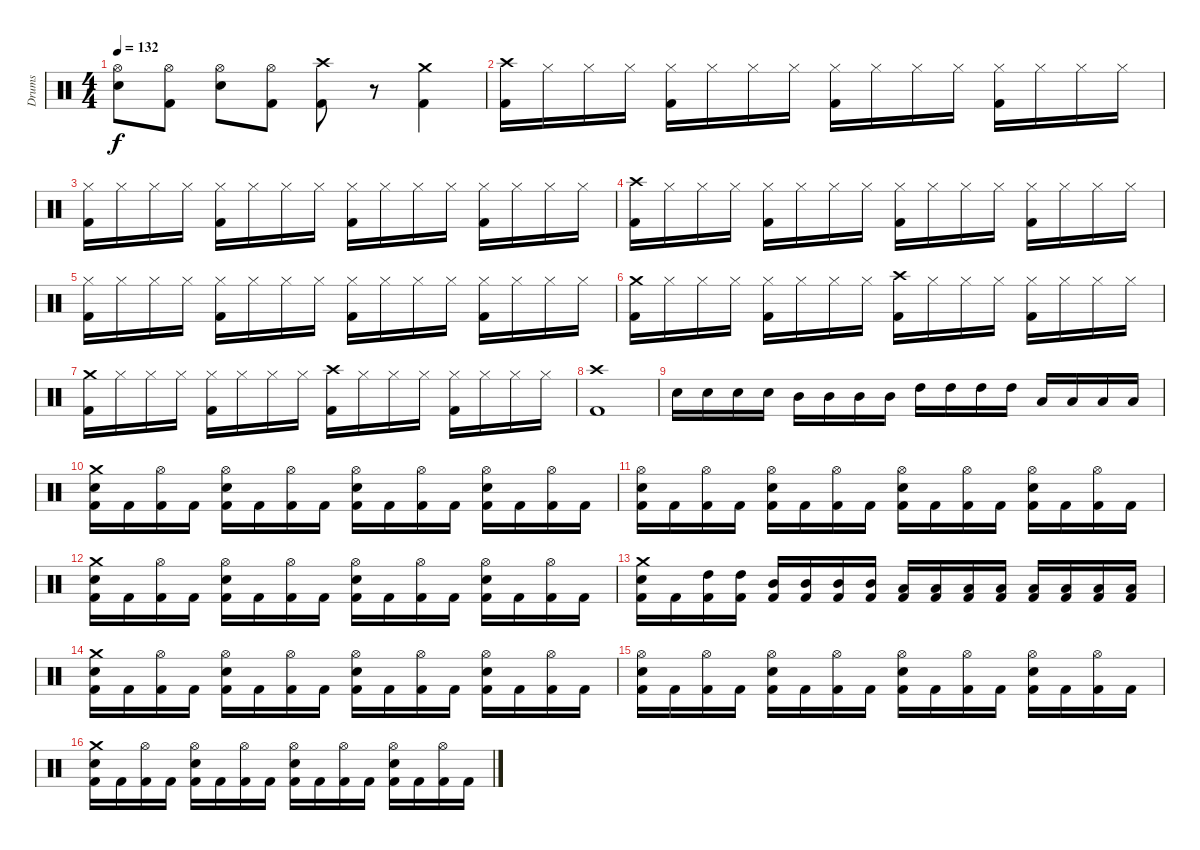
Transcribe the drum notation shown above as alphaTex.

\track ("Drums" "Drums") {instrument percussion}
\staff {score}
\articulation defaults
\ts (4 4)
\tempo 132
\clef neutral
\ks c
("Hi-Hat (open)" "Electric Snare (hit)").8{dy f} ("Hi-Hat (open)" "Kick (hit) 2").8 ("Hi-Hat (open)" "Electric Snare (hit)").8 ("Hi-Hat (open)" "Kick (hit) 2").8 ("Crash high (hit)" "Kick (hit) 2").8 r.8 ("Crash medium (hit)" "Kick (hit) 2").4 |
("Crash high (hit)" "Kick (hit) 2").16 "Hi-Hat (closed)".16 "Hi-Hat (closed)".16 "Hi-Hat (closed)".16 ("Hi-Hat (closed)" "Kick (hit) 2").16 "Hi-Hat (closed)".16 "Hi-Hat (closed)".16 "Hi-Hat (closed)".16 ("Hi-Hat (closed)" "Kick (hit) 2").16 "Hi-Hat (closed)".16 "Hi-Hat (closed)".16 "Hi-Hat (closed)".16 ("Hi-Hat (closed)" "Kick (hit) 2").16 "Hi-Hat (closed)".16 "Hi-Hat (closed)".16 "Hi-Hat (closed)".16 |
("Hi-Hat (closed)" "Kick (hit) 2").16 "Hi-Hat (closed)".16 "Hi-Hat (closed)".16 "Hi-Hat (closed)".16 ("Hi-Hat (closed)" "Kick (hit) 2").16 "Hi-Hat (closed)".16 "Hi-Hat (closed)".16 "Hi-Hat (closed)".16 ("Hi-Hat (closed)" "Kick (hit) 2").16 "Hi-Hat (closed)".16 "Hi-Hat (closed)".16 "Hi-Hat (closed)".16 ("Hi-Hat (closed)" "Kick (hit) 2").16 "Hi-Hat (closed)".16 "Hi-Hat (closed)".16 "Hi-Hat (closed)".16 |
("Crash high (hit)" "Kick (hit) 2").16 "Hi-Hat (closed)".16 "Hi-Hat (closed)".16 "Hi-Hat (closed)".16 ("Hi-Hat (closed)" "Kick (hit) 2").16 "Hi-Hat (closed)".16 "Hi-Hat (closed)".16 "Hi-Hat (closed)".16 ("Hi-Hat (closed)" "Kick (hit) 2").16 "Hi-Hat (closed)".16 "Hi-Hat (closed)".16 "Hi-Hat (closed)".16 ("Hi-Hat (closed)" "Kick (hit) 2").16 "Hi-Hat (closed)".16 "Hi-Hat (closed)".16 "Hi-Hat (closed)".16 |
("Hi-Hat (closed)" "Kick (hit) 2").16 "Hi-Hat (closed)".16 "Hi-Hat (closed)".16 "Hi-Hat (closed)".16 ("Hi-Hat (closed)" "Kick (hit) 2").16 "Hi-Hat (closed)".16 "Hi-Hat (closed)".16 "Hi-Hat (closed)".16 ("Hi-Hat (closed)" "Kick (hit) 2").16 "Hi-Hat (closed)".16 "Hi-Hat (closed)".16 "Hi-Hat (closed)".16 ("Hi-Hat (closed)" "Kick (hit) 2").16 "Hi-Hat (closed)".16 "Hi-Hat (closed)".16 "Hi-Hat (closed)".16 |
("Crash medium (hit)" "Kick (hit) 2").16 "Hi-Hat (closed)".16 "Hi-Hat (closed)".16 "Hi-Hat (closed)".16 ("Hi-Hat (closed)" "Kick (hit) 2").16 "Hi-Hat (closed)".16 "Hi-Hat (closed)".16 "Hi-Hat (closed)".16 ("Crash high (hit)" "Kick (hit) 2").16 "Hi-Hat (closed)".16 "Hi-Hat (closed)".16 "Hi-Hat (closed)".16 ("Hi-Hat (closed)" "Kick (hit) 2").16 "Hi-Hat (closed)".16 "Hi-Hat (closed)".16 "Hi-Hat (closed)".16 |
("Crash medium (hit)" "Kick (hit) 2").16 "Hi-Hat (closed)".16 "Hi-Hat (closed)".16 "Hi-Hat (closed)".16 ("Hi-Hat (closed)" "Kick (hit) 2").16 "Hi-Hat (closed)".16 "Hi-Hat (closed)".16 "Hi-Hat (closed)".16 ("Crash high (hit)" "Kick (hit) 2").16 "Hi-Hat (closed)".16 "Hi-Hat (closed)".16 "Hi-Hat (closed)".16 ("Hi-Hat (closed)" "Kick (hit) 2").16 "Hi-Hat (closed)".16 "Hi-Hat (closed)".16 "Hi-Hat (closed)".16 |
("Crash high (hit)" "Kick (hit) 2").1 |
"Electric Snare (hit)".16 "Electric Snare (hit)".16 "Electric Snare (hit)".16 "Electric Snare (hit)".16 "Mid Tom (hit)".16 "Mid Tom (hit)".16 "Mid Tom (hit)".16 "Mid Tom (hit)".16 "High Tom (hit)".16 "High Tom (hit)".16 "High Tom (hit)".16 "High Tom (hit)".16 "Low Tom (hit)".16 "Low Tom (hit)".16 "Low Tom (hit)".16 "Low Tom (hit)".16 |
("Crash medium (hit)" "Electric Snare (hit)" "Kick (hit) 2").16 "Kick (hit) 2".16 ("Hi-Hat (open)" "Kick (hit) 2").16 "Kick (hit) 2".16 ("Hi-Hat (open)" "Electric Snare (hit)" "Kick (hit) 2").16 "Kick (hit) 2".16 ("Hi-Hat (open)" "Kick (hit) 2").16 "Kick (hit) 2".16 ("Hi-Hat (open)" "Electric Snare (hit)" "Kick (hit) 2").16 "Kick (hit) 2".16 ("Hi-Hat (open)" "Kick (hit) 2").16 "Kick (hit) 2".16 ("Hi-Hat (open)" "Electric Snare (hit)" "Kick (hit) 2").16 "Kick (hit) 2".16 ("Hi-Hat (open)" "Kick (hit) 2").16 "Kick (hit) 2".16 |
("Hi-Hat (open)" "Electric Snare (hit)" "Kick (hit) 2").16 "Kick (hit) 2".16 ("Hi-Hat (open)" "Kick (hit) 2").16 "Kick (hit) 2".16 ("Hi-Hat (open)" "Electric Snare (hit)" "Kick (hit) 2").16 "Kick (hit) 2".16 ("Hi-Hat (open)" "Kick (hit) 2").16 "Kick (hit) 2".16 ("Hi-Hat (open)" "Electric Snare (hit)" "Kick (hit) 2").16 "Kick (hit) 2".16 ("Hi-Hat (open)" "Kick (hit) 2").16 "Kick (hit) 2".16 ("Hi-Hat (open)" "Electric Snare (hit)" "Kick (hit) 2").16 "Kick (hit) 2".16 ("Hi-Hat (open)" "Kick (hit) 2").16 "Kick (hit) 2".16 |
("Crash medium (hit)" "Electric Snare (hit)" "Kick (hit) 2").16 "Kick (hit) 2".16 ("Hi-Hat (open)" "Kick (hit) 2").16 "Kick (hit) 2".16 ("Hi-Hat (open)" "Electric Snare (hit)" "Kick (hit) 2").16 "Kick (hit) 2".16 ("Hi-Hat (open)" "Kick (hit) 2").16 "Kick (hit) 2".16 ("Hi-Hat (open)" "Electric Snare (hit)" "Kick (hit) 2").16 "Kick (hit) 2".16 ("Hi-Hat (open)" "Kick (hit) 2").16 "Kick (hit) 2".16 ("Hi-Hat (open)" "Electric Snare (hit)" "Kick (hit) 2").16 "Kick (hit) 2".16 ("Hi-Hat (open)" "Kick (hit) 2").16 "Kick (hit) 2".16 |
("Crash medium (hit)" "Electric Snare (hit)" "Kick (hit) 2").16 "Kick (hit) 2".16 ("High Tom (hit)" "Kick (hit) 2").16 ("High Tom (hit)" "Kick (hit) 2").16 ("Mid Tom (hit)" "Kick (hit) 2").16 ("Mid Tom (hit)" "Kick (hit) 2").16 ("Mid Tom (hit)" "Kick (hit) 2").16 ("Mid Tom (hit)" "Kick (hit) 2").16 ("Low Tom (hit)" "Kick (hit) 2").16 ("Low Tom (hit)" "Kick (hit) 2").16 ("Low Tom (hit)" "Kick (hit) 2").16 ("Low Tom (hit)" "Kick (hit) 2").16 ("Low Floor Tom (hit)" "Kick (hit) 2").16 ("Low Floor Tom (hit)" "Kick (hit) 2").16 ("Low Floor Tom (hit)" "Kick (hit) 2").16 ("Low Floor Tom (hit)" "Kick (hit) 2").16 |
("Crash medium (hit)" "Electric Snare (hit)" "Kick (hit) 2").16 "Kick (hit) 2".16 ("Hi-Hat (open)" "Kick (hit) 2").16 "Kick (hit) 2".16 ("Hi-Hat (open)" "Electric Snare (hit)" "Kick (hit) 2").16 "Kick (hit) 2".16 ("Hi-Hat (open)" "Kick (hit) 2").16 "Kick (hit) 2".16 ("Hi-Hat (open)" "Electric Snare (hit)" "Kick (hit) 2").16 "Kick (hit) 2".16 ("Hi-Hat (open)" "Kick (hit) 2").16 "Kick (hit) 2".16 ("Hi-Hat (open)" "Electric Snare (hit)" "Kick (hit) 2").16 "Kick (hit) 2".16 ("Hi-Hat (open)" "Kick (hit) 2").16 "Kick (hit) 2".16 |
("Hi-Hat (open)" "Electric Snare (hit)" "Kick (hit) 2").16 "Kick (hit) 2".16 ("Hi-Hat (open)" "Kick (hit) 2").16 "Kick (hit) 2".16 ("Hi-Hat (open)" "Electric Snare (hit)" "Kick (hit) 2").16 "Kick (hit) 2".16 ("Hi-Hat (open)" "Kick (hit) 2").16 "Kick (hit) 2".16 ("Hi-Hat (open)" "Electric Snare (hit)" "Kick (hit) 2").16 "Kick (hit) 2".16 ("Hi-Hat (open)" "Kick (hit) 2").16 "Kick (hit) 2".16 ("Hi-Hat (open)" "Electric Snare (hit)" "Kick (hit) 2").16 "Kick (hit) 2".16 ("Hi-Hat (open)" "Kick (hit) 2").16 "Kick (hit) 2".16 |
("Crash medium (hit)" "Electric Snare (hit)" "Kick (hit) 2").16 "Kick (hit) 2".16 ("Hi-Hat (open)" "Kick (hit) 2").16 "Kick (hit) 2".16 ("Hi-Hat (open)" "Electric Snare (hit)" "Kick (hit) 2").16 "Kick (hit) 2".16 ("Hi-Hat (open)" "Kick (hit) 2").16 "Kick (hit) 2".16 ("Hi-Hat (open)" "Electric Snare (hit)" "Kick (hit) 2").16 "Kick (hit) 2".16 ("Hi-Hat (open)" "Kick (hit) 2").16 "Kick (hit) 2".16 ("Hi-Hat (open)" "Electric Snare (hit)" "Kick (hit) 2").16 "Kick (hit) 2".16 ("Hi-Hat (open)" "Kick (hit) 2").16 "Kick (hit) 2".16
